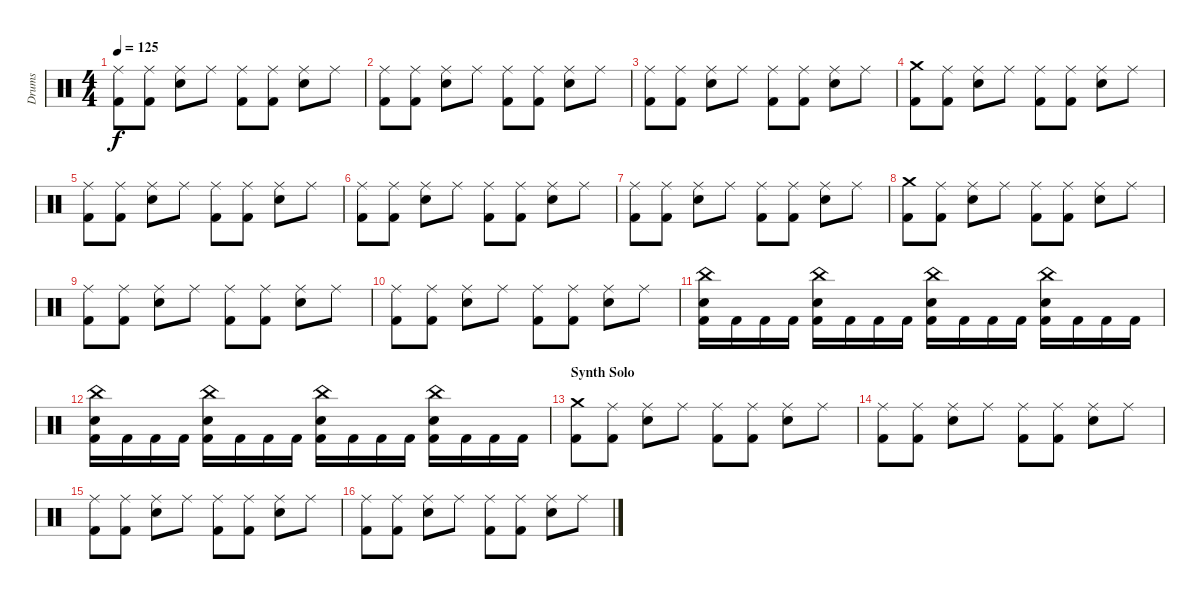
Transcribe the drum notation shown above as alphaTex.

\track ("Drums" "Drums") {instrument percussion}
\staff {score}
\articulation defaults
\ts (4 4)
\tempo 125
\clef neutral
\ks c
("Ride (middle)" "Kick (hit) 2").8{dy f} ("Ride (middle)" "Kick (hit) 2").8 ("Ride (middle)" "Snare (hit) 2").8 "Ride (middle)".8 ("Ride (middle)" "Kick (hit) 2").8 ("Ride (middle)" "Kick (hit) 2").8 ("Ride (middle)" "Snare (hit) 2").8 "Ride (middle)".8 |
("Ride (middle)" "Kick (hit) 2").8 ("Ride (middle)" "Kick (hit) 2").8 ("Ride (middle)" "Snare (hit) 2").8 "Ride (middle)".8 ("Ride (middle)" "Kick (hit) 2").8 ("Ride (middle)" "Kick (hit) 2").8 ("Ride (middle)" "Snare (hit) 2").8 "Ride (middle)".8 |
("Ride (middle)" "Kick (hit) 2").8 ("Ride (middle)" "Kick (hit) 2").8 ("Ride (middle)" "Snare (hit) 2").8 "Ride (middle)".8 ("Ride (middle)" "Kick (hit) 2").8 ("Ride (middle)" "Kick (hit) 2").8 ("Ride (middle)" "Snare (hit) 2").8 "Ride (middle)".8 |
("Crash medium (hit)" "Kick (hit) 2").8 ("Ride (middle)" "Kick (hit) 2").8 ("Ride (middle)" "Snare (hit) 2").8 "Ride (middle)".8 ("Ride (middle)" "Kick (hit) 2").8 ("Ride (middle)" "Kick (hit) 2").8 ("Ride (middle)" "Snare (hit) 2").8 "Ride (middle)".8 |
("Ride (middle)" "Kick (hit) 2").8 ("Ride (middle)" "Kick (hit) 2").8 ("Ride (middle)" "Snare (hit) 2").8 "Ride (middle)".8 ("Ride (middle)" "Kick (hit) 2").8 ("Ride (middle)" "Kick (hit) 2").8 ("Ride (middle)" "Snare (hit) 2").8 "Ride (middle)".8 |
("Ride (middle)" "Kick (hit) 2").8 ("Ride (middle)" "Kick (hit) 2").8 ("Ride (middle)" "Snare (hit) 2").8 "Ride (middle)".8 ("Ride (middle)" "Kick (hit) 2").8 ("Ride (middle)" "Kick (hit) 2").8 ("Ride (middle)" "Snare (hit) 2").8 "Ride (middle)".8 |
("Ride (middle)" "Kick (hit) 2").8 ("Ride (middle)" "Kick (hit) 2").8 ("Ride (middle)" "Snare (hit) 2").8 "Ride (middle)".8 ("Ride (middle)" "Kick (hit) 2").8 ("Ride (middle)" "Kick (hit) 2").8 ("Ride (middle)" "Snare (hit) 2").8 "Ride (middle)".8 |
("Crash medium (hit)" "Kick (hit) 2").8 ("Ride (middle)" "Kick (hit) 2").8 ("Ride (middle)" "Snare (hit) 2").8 "Ride (middle)".8 ("Ride (middle)" "Kick (hit) 2").8 ("Ride (middle)" "Kick (hit) 2").8 ("Ride (middle)" "Snare (hit) 2").8 "Ride (middle)".8 |
("Ride (middle)" "Kick (hit) 2").8 ("Ride (middle)" "Kick (hit) 2").8 ("Ride (middle)" "Snare (hit) 2").8 "Ride (middle)".8 ("Ride (middle)" "Kick (hit) 2").8 ("Ride (middle)" "Kick (hit) 2").8 ("Ride (middle)" "Snare (hit) 2").8 "Ride (middle)".8 |
("Ride (middle)" "Kick (hit) 2").8 ("Ride (middle)" "Kick (hit) 2").8 ("Ride (middle)" "Snare (hit) 2").8 "Ride (middle)".8 ("Ride (middle)" "Kick (hit) 2").8 ("Ride (middle)" "Kick (hit) 2").8 ("Ride (middle)" "Snare (hit) 2").8 "Ride (middle)".8 |
("China (hit)" "Snare (hit) 2" "Kick (hit) 2").16 "Kick (hit) 2".16 "Kick (hit) 2".16 "Kick (hit) 2".16 ("China (hit)" "Snare (hit) 2" "Kick (hit) 2").16 "Kick (hit) 2".16 "Kick (hit) 2".16 "Kick (hit) 2".16 ("China (hit)" "Snare (hit) 2" "Kick (hit) 2").16 "Kick (hit) 2".16 "Kick (hit) 2".16 "Kick (hit) 2".16 ("China (hit)" "Snare (hit) 2" "Kick (hit) 2").16 "Kick (hit) 2".16 "Kick (hit) 2".16 "Kick (hit) 2".16 |
("China (hit)" "Snare (hit) 2" "Kick (hit) 2").16 "Kick (hit) 2".16 "Kick (hit) 2".16 "Kick (hit) 2".16 ("China (hit)" "Snare (hit) 2" "Kick (hit) 2").16 "Kick (hit) 2".16 "Kick (hit) 2".16 "Kick (hit) 2".16 ("China (hit)" "Snare (hit) 2" "Kick (hit) 2").16 "Kick (hit) 2".16 "Kick (hit) 2".16 "Kick (hit) 2".16 ("China (hit)" "Snare (hit) 2" "Kick (hit) 2").16 "Kick (hit) 2".16 "Kick (hit) 2".16 "Kick (hit) 2".16 |
\section ("" "Synth Solo")
("Crash medium (hit)" "Kick (hit) 2").8 ("Ride (middle)" "Kick (hit) 2").8 ("Ride (middle)" "Snare (hit) 2").8 "Ride (middle)".8 ("Ride (middle)" "Kick (hit) 2").8 ("Ride (middle)" "Kick (hit) 2").8 ("Ride (middle)" "Snare (hit) 2").8 "Ride (middle)".8 |
("Ride (middle)" "Kick (hit) 2").8 ("Ride (middle)" "Kick (hit) 2").8 ("Ride (middle)" "Snare (hit) 2").8 "Ride (middle)".8 ("Ride (middle)" "Kick (hit) 2").8 ("Ride (middle)" "Kick (hit) 2").8 ("Ride (middle)" "Snare (hit) 2").8 "Ride (middle)".8 |
("Ride (middle)" "Kick (hit) 2").8 ("Ride (middle)" "Kick (hit) 2").8 ("Ride (middle)" "Snare (hit) 2").8 "Ride (middle)".8 ("Ride (middle)" "Kick (hit) 2").8 ("Ride (middle)" "Kick (hit) 2").8 ("Ride (middle)" "Snare (hit) 2").8 "Ride (middle)".8 |
("Ride (middle)" "Kick (hit) 2").8 ("Ride (middle)" "Kick (hit) 2").8 ("Ride (middle)" "Snare (hit) 2").8 "Ride (middle)".8 ("Ride (middle)" "Kick (hit) 2").8 ("Ride (middle)" "Kick (hit) 2").8 ("Ride (middle)" "Snare (hit) 2").8 "Ride (middle)".8
